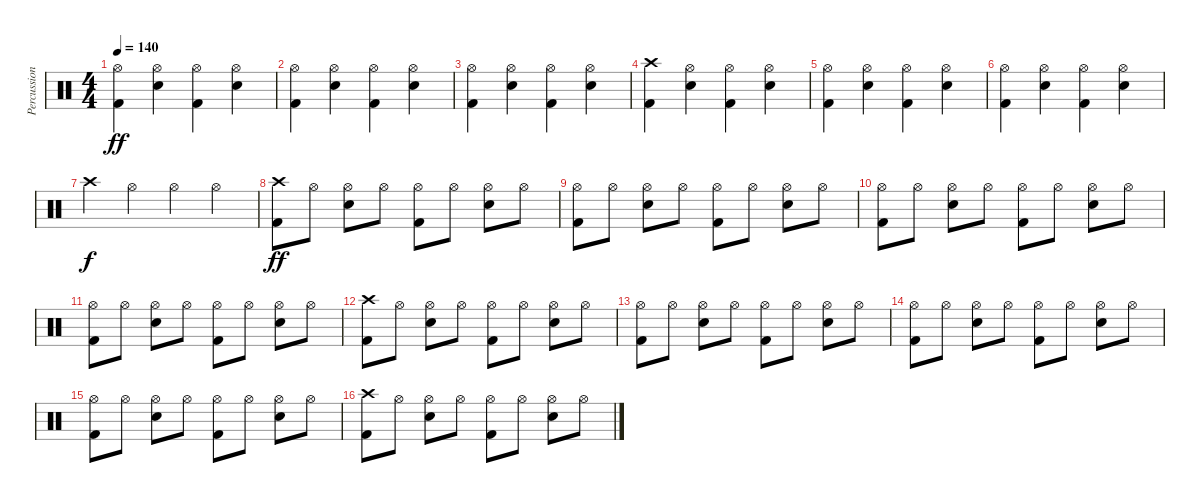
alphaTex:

\track ("Percussion" "Percussion") {instrument percussion}
\staff {score}
\articulation defaults
\ts (4 4)
\tempo 140
\clef neutral
\ks c
("Hi-Hat (open)" "Kick (hit) 2").4{dy ff} ("Hi-Hat (open)" "Snare (hit) 2").4 ("Hi-Hat (open)" "Kick (hit) 2").4 ("Hi-Hat (open)" "Snare (hit) 2").4 |
("Hi-Hat (open)" "Kick (hit) 2").4 ("Hi-Hat (open)" "Snare (hit) 2").4 ("Hi-Hat (open)" "Kick (hit) 2").4 ("Hi-Hat (open)" "Snare (hit) 2").4 |
("Hi-Hat (open)" "Kick (hit) 2").4 ("Hi-Hat (open)" "Snare (hit) 2").4 ("Hi-Hat (open)" "Kick (hit) 2").4 ("Hi-Hat (open)" "Snare (hit) 2").4 |
("Crash high (hit)" "Kick (hit) 2").4 ("Hi-Hat (open)" "Snare (hit) 2").4 ("Hi-Hat (open)" "Kick (hit) 2").4 ("Hi-Hat (open)" "Snare (hit) 2").4 |
("Hi-Hat (open)" "Kick (hit) 2").4 ("Hi-Hat (open)" "Snare (hit) 2").4 ("Hi-Hat (open)" "Kick (hit) 2").4 ("Hi-Hat (open)" "Snare (hit) 2").4 |
("Hi-Hat (open)" "Kick (hit) 2").4 ("Hi-Hat (open)" "Snare (hit) 2").4 ("Hi-Hat (open)" "Kick (hit) 2").4 ("Hi-Hat (open)" "Snare (hit) 2").4 |
"Crash high (hit)".4{dy f} "Hi-Hat (open)".4 "Hi-Hat (open)".4 "Hi-Hat (open)".4 |
("Crash high (hit)" "Kick (hit) 2").8{dy ff} "Hi-Hat (open)".8 ("Hi-Hat (open)" "Snare (hit) 2").8 "Hi-Hat (open)".8 ("Hi-Hat (open)" "Kick (hit) 2").8 "Hi-Hat (open)".8 ("Hi-Hat (open)" "Snare (hit) 2").8 "Hi-Hat (open)".8 |
("Hi-Hat (open)" "Kick (hit) 2").8 "Hi-Hat (open)".8 ("Hi-Hat (open)" "Snare (hit) 2").8 "Hi-Hat (open)".8 ("Hi-Hat (open)" "Kick (hit) 2").8 "Hi-Hat (open)".8 ("Hi-Hat (open)" "Snare (hit) 2").8 "Hi-Hat (open)".8 |
("Hi-Hat (open)" "Kick (hit) 2").8 "Hi-Hat (open)".8 ("Hi-Hat (open)" "Snare (hit) 2").8 "Hi-Hat (open)".8 ("Hi-Hat (open)" "Kick (hit) 2").8 "Hi-Hat (open)".8 ("Hi-Hat (open)" "Snare (hit) 2").8 "Hi-Hat (open)".8 |
("Hi-Hat (open)" "Kick (hit) 2").8 "Hi-Hat (open)".8 ("Hi-Hat (open)" "Snare (hit) 2").8 "Hi-Hat (open)".8 ("Hi-Hat (open)" "Kick (hit) 2").8 "Hi-Hat (open)".8 ("Hi-Hat (open)" "Snare (hit) 2").8 "Hi-Hat (open)".8 |
("Crash high (hit)" "Kick (hit) 2").8 "Hi-Hat (open)".8 ("Hi-Hat (open)" "Snare (hit) 2").8 "Hi-Hat (open)".8 ("Hi-Hat (open)" "Kick (hit) 2").8 "Hi-Hat (open)".8 ("Hi-Hat (open)" "Snare (hit) 2").8 "Hi-Hat (open)".8 |
("Hi-Hat (open)" "Kick (hit) 2").8 "Hi-Hat (open)".8 ("Hi-Hat (open)" "Snare (hit) 2").8 "Hi-Hat (open)".8 ("Hi-Hat (open)" "Kick (hit) 2").8 "Hi-Hat (open)".8 ("Hi-Hat (open)" "Snare (hit) 2").8 "Hi-Hat (open)".8 |
("Hi-Hat (open)" "Kick (hit) 2").8 "Hi-Hat (open)".8 ("Hi-Hat (open)" "Snare (hit) 2").8 "Hi-Hat (open)".8 ("Hi-Hat (open)" "Kick (hit) 2").8 "Hi-Hat (open)".8 ("Hi-Hat (open)" "Snare (hit) 2").8 "Hi-Hat (open)".8 |
("Hi-Hat (open)" "Kick (hit) 2").8 "Hi-Hat (open)".8 ("Hi-Hat (open)" "Snare (hit) 2").8 "Hi-Hat (open)".8 ("Hi-Hat (open)" "Kick (hit) 2").8 "Hi-Hat (open)".8 ("Hi-Hat (open)" "Snare (hit) 2").8 "Hi-Hat (open)".8 |
("Crash high (hit)" "Kick (hit) 2").8 "Hi-Hat (open)".8 ("Hi-Hat (open)" "Snare (hit) 2").8 "Hi-Hat (open)".8 ("Hi-Hat (open)" "Kick (hit) 2").8 "Hi-Hat (open)".8 ("Hi-Hat (open)" "Snare (hit) 2").8 "Hi-Hat (open)".8
